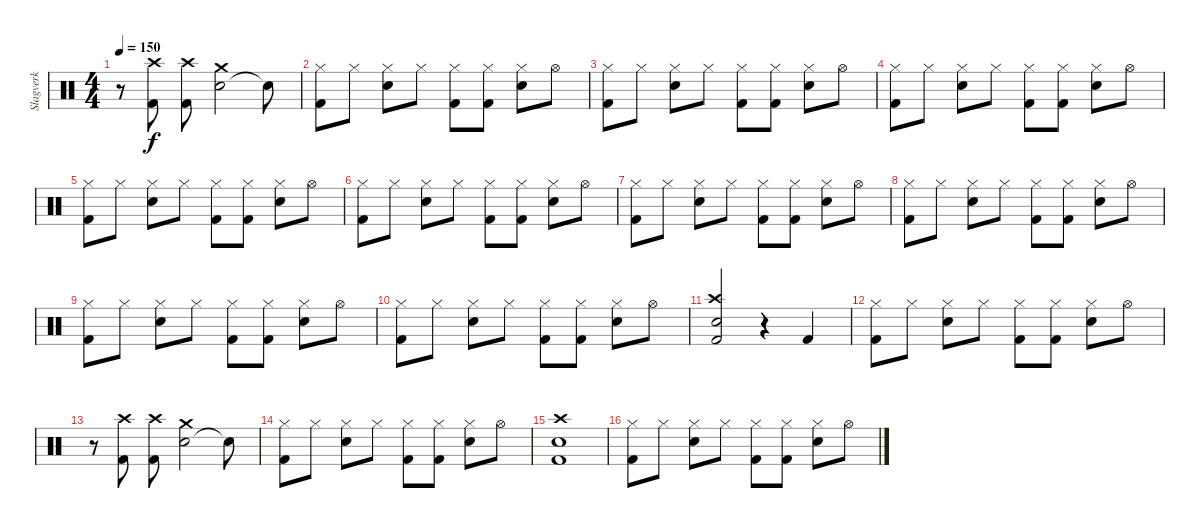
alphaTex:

\track ("Slagverk" "Slagverk") {instrument percussion}
\staff {score}
\articulation defaults
\ts (4 4)
\tempo 150
\clef neutral
\ks c
r.8{dy f} ("Kick (hit) 2" "Crash high (hit)").8 ("Kick (hit) 2" "Crash high (hit)").8 ("Snare (hit) 2" "Crash medium (hit)").2 "Snare (hit)"{t}.8 |
("Hi-Hat (closed)" "Kick (hit) 2").8 "Hi-Hat (closed)".8 ("Hi-Hat (closed)" "Snare (hit) 2").8 "Hi-Hat (closed)".8 ("Hi-Hat (closed)" "Kick (hit) 2").8 ("Hi-Hat (closed)" "Kick (hit) 2").8 ("Hi-Hat (closed)" "Snare (hit) 2").8 "Hi-Hat (open)".8 |
("Hi-Hat (closed)" "Kick (hit) 2").8 "Hi-Hat (closed)".8 ("Hi-Hat (closed)" "Snare (hit) 2").8 "Hi-Hat (closed)".8 ("Hi-Hat (closed)" "Kick (hit) 2").8 ("Hi-Hat (closed)" "Kick (hit) 2").8 ("Hi-Hat (closed)" "Snare (hit) 2").8 "Hi-Hat (open)".8 |
("Hi-Hat (closed)" "Kick (hit) 2").8 "Hi-Hat (closed)".8 ("Hi-Hat (closed)" "Snare (hit) 2").8 "Hi-Hat (closed)".8 ("Hi-Hat (closed)" "Kick (hit) 2").8 ("Hi-Hat (closed)" "Kick (hit) 2").8 ("Hi-Hat (closed)" "Snare (hit) 2").8 "Hi-Hat (open)".8 |
("Hi-Hat (closed)" "Kick (hit) 2").8 "Hi-Hat (closed)".8 ("Hi-Hat (closed)" "Snare (hit) 2").8 "Hi-Hat (closed)".8 ("Hi-Hat (closed)" "Kick (hit) 2").8 ("Hi-Hat (closed)" "Kick (hit) 2").8 ("Hi-Hat (closed)" "Snare (hit) 2").8 "Hi-Hat (open)".8 |
("Hi-Hat (closed)" "Kick (hit) 2").8 "Hi-Hat (closed)".8 ("Hi-Hat (closed)" "Snare (hit) 2").8 "Hi-Hat (closed)".8 ("Hi-Hat (closed)" "Kick (hit) 2").8 ("Hi-Hat (closed)" "Kick (hit) 2").8 ("Hi-Hat (closed)" "Snare (hit) 2").8 "Hi-Hat (open)".8 |
("Hi-Hat (closed)" "Kick (hit) 2").8 "Hi-Hat (closed)".8 ("Hi-Hat (closed)" "Snare (hit) 2").8 "Hi-Hat (closed)".8 ("Hi-Hat (closed)" "Kick (hit) 2").8 ("Hi-Hat (closed)" "Kick (hit) 2").8 ("Hi-Hat (closed)" "Snare (hit) 2").8 "Hi-Hat (open)".8 |
("Hi-Hat (closed)" "Kick (hit) 2").8 "Hi-Hat (closed)".8 ("Hi-Hat (closed)" "Snare (hit) 2").8 "Hi-Hat (closed)".8 ("Hi-Hat (closed)" "Kick (hit) 2").8 ("Hi-Hat (closed)" "Kick (hit) 2").8 ("Hi-Hat (closed)" "Snare (hit) 2").8 "Hi-Hat (open)".8 |
("Hi-Hat (closed)" "Kick (hit) 2").8 "Hi-Hat (closed)".8 ("Hi-Hat (closed)" "Snare (hit) 2").8 "Hi-Hat (closed)".8 ("Hi-Hat (closed)" "Kick (hit) 2").8 ("Hi-Hat (closed)" "Kick (hit) 2").8 ("Hi-Hat (closed)" "Snare (hit) 2").8 "Hi-Hat (open)".8 |
("Hi-Hat (closed)" "Kick (hit) 2").8 "Hi-Hat (closed)".8 ("Hi-Hat (closed)" "Snare (hit) 2").8 "Hi-Hat (closed)".8 ("Hi-Hat (closed)" "Kick (hit) 2").8 ("Hi-Hat (closed)" "Kick (hit) 2").8 ("Hi-Hat (closed)" "Snare (hit) 2").8 "Hi-Hat (open)".8 |
("Crash high (hit)" "Kick (hit) 2" "Snare (hit) 2").2 r.4 "Kick (hit) 2".4 |
("Hi-Hat (closed)" "Kick (hit) 2").8 "Hi-Hat (closed)".8 ("Hi-Hat (closed)" "Snare (hit) 2").8 "Hi-Hat (closed)".8 ("Hi-Hat (closed)" "Kick (hit) 2").8 ("Hi-Hat (closed)" "Kick (hit) 2").8 ("Hi-Hat (closed)" "Snare (hit) 2").8 "Hi-Hat (open)".8 |
r.8 ("Kick (hit) 2" "Crash high (hit)").8 ("Kick (hit) 2" "Crash high (hit)").8 ("Snare (hit) 2" "Crash medium (hit)").2 "Snare (hit)"{t}.8 |
("Hi-Hat (closed)" "Kick (hit) 2").8 "Hi-Hat (closed)".8 ("Hi-Hat (closed)" "Snare (hit) 2").8 "Hi-Hat (closed)".8 ("Hi-Hat (closed)" "Kick (hit) 2").8 ("Hi-Hat (closed)" "Kick (hit) 2").8 ("Hi-Hat (closed)" "Snare (hit) 2").8 "Hi-Hat (open)".8 |
("Crash high (hit)" "Kick (hit) 2" "Snare (hit) 2").1 |
("Hi-Hat (closed)" "Kick (hit) 2").8 "Hi-Hat (closed)".8 ("Hi-Hat (closed)" "Snare (hit) 2").8 "Hi-Hat (closed)".8 ("Hi-Hat (closed)" "Kick (hit) 2").8 ("Hi-Hat (closed)" "Kick (hit) 2").8 ("Hi-Hat (closed)" "Snare (hit) 2").8 "Hi-Hat (open)".8
